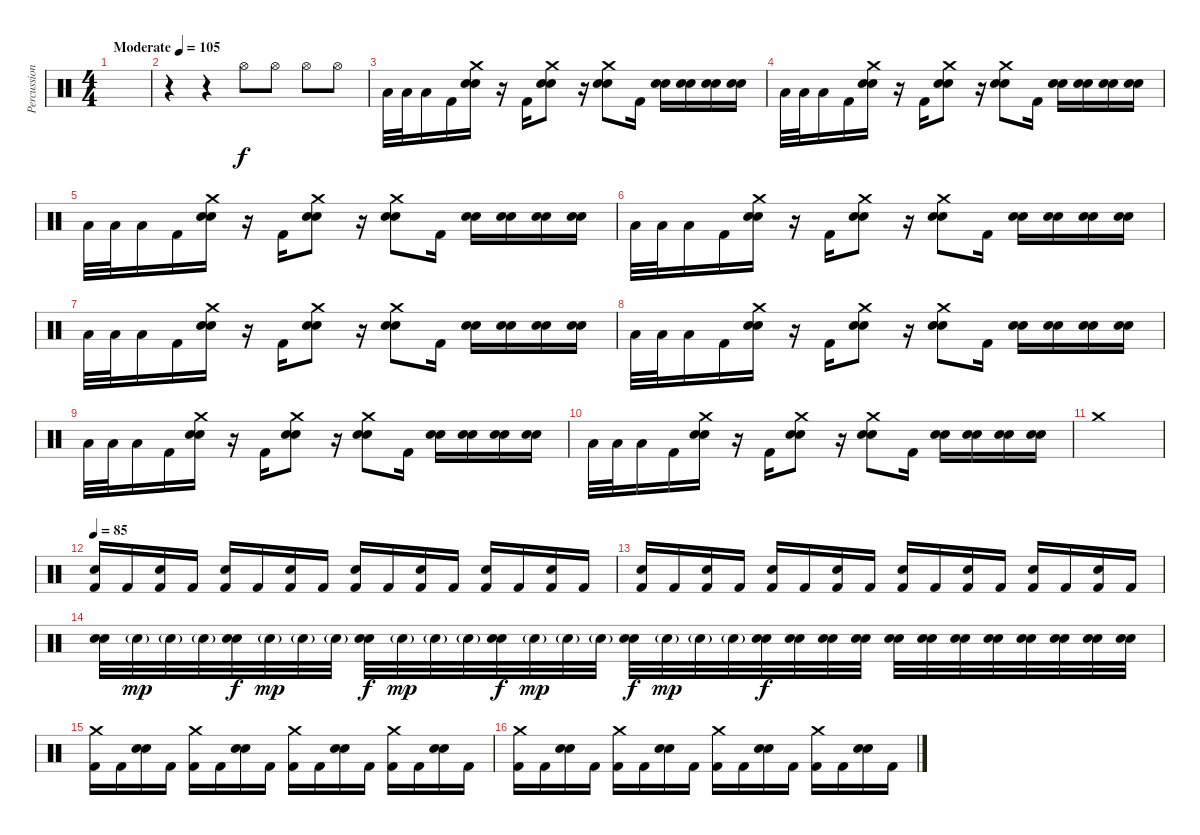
\track ("Percussion" "Percussion") {instrument percussion}
\staff {score}
\articulation defaults
\ts (4 4)
\tempo (105 "Moderate")
\clef neutral
\ks c
|
r.4 r.4 "Hi-Hat (open)".8 "Hi-Hat (open)".8 "Hi-Hat (open)".8 "Hi-Hat (open)".8 |
"Low Tom (hit)".32 "Low Tom (hit)".32 "Low Tom (hit)".16 "Kick (hit) 2".16 ("Crash medium (hit)" "Electric Snare (hit)" "Electric Snare (hit)").16 r.16 "Kick (hit) 2".16 ("Crash medium (hit)" "Electric Snare (hit)" "Electric Snare (hit)").8 r.16 ("Crash medium (hit)" "Electric Snare (hit)" "Electric Snare (hit)").8 "Kick (hit) 2".16 ("Electric Snare (hit)" "Electric Snare (hit)").16 ("Electric Snare (hit)" "Electric Snare (hit)").16 ("Electric Snare (hit)" "Electric Snare (hit)").16 ("Electric Snare (hit)" "Electric Snare (hit)").16 |
"Low Tom (hit)".32 "Low Tom (hit)".32 "Low Tom (hit)".16 "Kick (hit) 2".16 ("Crash medium (hit)" "Electric Snare (hit)" "Electric Snare (hit)").16 r.16 "Kick (hit) 2".16 ("Crash medium (hit)" "Electric Snare (hit)" "Electric Snare (hit)").8 r.16 ("Crash medium (hit)" "Electric Snare (hit)" "Electric Snare (hit)").8 "Kick (hit) 2".16 ("Electric Snare (hit)" "Electric Snare (hit)").16 ("Electric Snare (hit)" "Electric Snare (hit)").16 ("Electric Snare (hit)" "Electric Snare (hit)").16 ("Electric Snare (hit)" "Electric Snare (hit)").16 |
"Low Tom (hit)".32 "Low Tom (hit)".32 "Low Tom (hit)".16 "Kick (hit) 2".16 ("Crash medium (hit)" "Electric Snare (hit)" "Electric Snare (hit)").16 r.16 "Kick (hit) 2".16 ("Crash medium (hit)" "Electric Snare (hit)" "Electric Snare (hit)").8 r.16 ("Crash medium (hit)" "Electric Snare (hit)" "Electric Snare (hit)").8 "Kick (hit) 2".16 ("Electric Snare (hit)" "Electric Snare (hit)").16 ("Electric Snare (hit)" "Electric Snare (hit)").16 ("Electric Snare (hit)" "Electric Snare (hit)").16 ("Electric Snare (hit)" "Electric Snare (hit)").16 |
"Low Tom (hit)".32 "Low Tom (hit)".32 "Low Tom (hit)".16 "Kick (hit) 2".16 ("Crash medium (hit)" "Electric Snare (hit)" "Electric Snare (hit)").16 r.16 "Kick (hit) 2".16 ("Crash medium (hit)" "Electric Snare (hit)" "Electric Snare (hit)").8 r.16 ("Crash medium (hit)" "Electric Snare (hit)" "Electric Snare (hit)").8 "Kick (hit) 2".16 ("Electric Snare (hit)" "Electric Snare (hit)").16 ("Electric Snare (hit)" "Electric Snare (hit)").16 ("Electric Snare (hit)" "Electric Snare (hit)").16 ("Electric Snare (hit)" "Electric Snare (hit)").16 |
"Low Tom (hit)".32 "Low Tom (hit)".32 "Low Tom (hit)".16 "Kick (hit) 2".16 ("Crash medium (hit)" "Electric Snare (hit)" "Electric Snare (hit)").16 r.16 "Kick (hit) 2".16 ("Crash medium (hit)" "Electric Snare (hit)" "Electric Snare (hit)").8 r.16 ("Crash medium (hit)" "Electric Snare (hit)" "Electric Snare (hit)").8 "Kick (hit) 2".16 ("Electric Snare (hit)" "Electric Snare (hit)").16 ("Electric Snare (hit)" "Electric Snare (hit)").16 ("Electric Snare (hit)" "Electric Snare (hit)").16 ("Electric Snare (hit)" "Electric Snare (hit)").16 |
"Low Tom (hit)".32 "Low Tom (hit)".32 "Low Tom (hit)".16 "Kick (hit) 2".16 ("Crash medium (hit)" "Electric Snare (hit)" "Electric Snare (hit)").16 r.16 "Kick (hit) 2".16 ("Crash medium (hit)" "Electric Snare (hit)" "Electric Snare (hit)").8 r.16 ("Crash medium (hit)" "Electric Snare (hit)" "Electric Snare (hit)").8 "Kick (hit) 2".16 ("Electric Snare (hit)" "Electric Snare (hit)").16 ("Electric Snare (hit)" "Electric Snare (hit)").16 ("Electric Snare (hit)" "Electric Snare (hit)").16 ("Electric Snare (hit)" "Electric Snare (hit)").16 |
"Low Tom (hit)".32 "Low Tom (hit)".32 "Low Tom (hit)".16 "Kick (hit) 2".16 ("Crash medium (hit)" "Electric Snare (hit)" "Electric Snare (hit)").16 r.16 "Kick (hit) 2".16 ("Crash medium (hit)" "Electric Snare (hit)" "Electric Snare (hit)").8 r.16 ("Crash medium (hit)" "Electric Snare (hit)" "Electric Snare (hit)").8 "Kick (hit) 2".16 ("Electric Snare (hit)" "Electric Snare (hit)").16 ("Electric Snare (hit)" "Electric Snare (hit)").16 ("Electric Snare (hit)" "Electric Snare (hit)").16 ("Electric Snare (hit)" "Electric Snare (hit)").16 |
"Low Tom (hit)".32 "Low Tom (hit)".32 "Low Tom (hit)".16 "Kick (hit) 2".16 ("Crash medium (hit)" "Electric Snare (hit)" "Electric Snare (hit)").16 r.16 "Kick (hit) 2".16 ("Crash medium (hit)" "Electric Snare (hit)" "Electric Snare (hit)").8 r.16 ("Crash medium (hit)" "Electric Snare (hit)" "Electric Snare (hit)").8 "Kick (hit) 2".16 ("Electric Snare (hit)" "Electric Snare (hit)").16 ("Electric Snare (hit)" "Electric Snare (hit)").16 ("Electric Snare (hit)" "Electric Snare (hit)").16 ("Electric Snare (hit)" "Electric Snare (hit)").16 |
"Crash medium (hit)".1 |
\tempo 85
("Electric Snare (hit)" "Kick (hit) 2").16 "Kick (hit) 2".16 ("Electric Snare (hit)" "Kick (hit) 2").16 "Kick (hit) 2".16 ("Electric Snare (hit)" "Kick (hit) 2").16 "Kick (hit) 2".16 ("Electric Snare (hit)" "Kick (hit) 2").16 "Kick (hit) 2".16 ("Electric Snare (hit)" "Kick (hit) 2").16 "Kick (hit) 2".16 ("Electric Snare (hit)" "Kick (hit) 2").16 "Kick (hit) 2".16 ("Electric Snare (hit)" "Kick (hit) 2").16 "Kick (hit) 2".16 ("Electric Snare (hit)" "Kick (hit) 2").16 "Kick (hit) 2".16 |
("Electric Snare (hit)" "Kick (hit) 2").16 "Kick (hit) 2".16 ("Electric Snare (hit)" "Kick (hit) 2").16 "Kick (hit) 2".16 ("Electric Snare (hit)" "Kick (hit) 2").16 "Kick (hit) 2".16 ("Electric Snare (hit)" "Kick (hit) 2").16 "Kick (hit) 2".16 ("Electric Snare (hit)" "Kick (hit) 2").16 "Kick (hit) 2".16 ("Electric Snare (hit)" "Kick (hit) 2").16 "Kick (hit) 2".16 ("Electric Snare (hit)" "Kick (hit) 2").16 "Kick (hit) 2".16 ("Electric Snare (hit)" "Kick (hit) 2").16 "Kick (hit) 2".16 |
("Electric Snare (hit)" "Electric Snare (hit)").32 "Electric Snare (hit)"{g}.32{dy mp} "Electric Snare (hit)"{g}.32 "Electric Snare (hit)"{g}.32 ("Electric Snare (hit)" "Electric Snare (hit)").32{dy f} "Electric Snare (hit)"{g}.32{dy mp} "Electric Snare (hit)"{g}.32 "Electric Snare (hit)"{g}.32 ("Electric Snare (hit)" "Electric Snare (hit)").32{dy f} "Electric Snare (hit)"{g}.32{dy mp} "Electric Snare (hit)"{g}.32 "Electric Snare (hit)"{g}.32 ("Electric Snare (hit)" "Electric Snare (hit)").32{dy f} "Electric Snare (hit)"{g}.32{dy mp} "Electric Snare (hit)"{g}.32 "Electric Snare (hit)"{g}.32 ("Electric Snare (hit)" "Electric Snare (hit)").32{dy f} "Electric Snare (hit)"{g}.32{dy mp} "Electric Snare (hit)"{g}.32 "Electric Snare (hit)"{g}.32 ("Electric Snare (hit)" "Electric Snare (hit)").32{dy f} ("Electric Snare (hit)" "Electric Snare (hit)").32 ("Electric Snare (hit)" "Electric Snare (hit)").32 ("Electric Snare (hit)" "Electric Snare (hit)").32 ("Electric Snare (hit)" "Electric Snare (hit)").32 ("Electric Snare (hit)" "Electric Snare (hit)").32 ("Electric Snare (hit)" "Electric Snare (hit)").32 ("Electric Snare (hit)" "Electric Snare (hit)").32 ("Electric Snare (hit)" "Electric Snare (hit)").32 ("Electric Snare (hit)" "Electric Snare (hit)").32 ("Electric Snare (hit)" "Electric Snare (hit)").32 ("Electric Snare (hit)" "Electric Snare (hit)").32 |
("Crash medium (hit)" "Kick (hit) 2").16 "Kick (hit) 2".16 ("Electric Snare (hit)" "Electric Snare (hit)").16 "Kick (hit) 2".16 ("Crash medium (hit)" "Kick (hit) 2").16 "Kick (hit) 2".16 ("Electric Snare (hit)" "Electric Snare (hit)").16 "Kick (hit) 2".16 ("Crash medium (hit)" "Kick (hit) 2").16 "Kick (hit) 2".16 ("Electric Snare (hit)" "Electric Snare (hit)").16 "Kick (hit) 2".16 ("Crash medium (hit)" "Kick (hit) 2").16 "Kick (hit) 2".16 ("Electric Snare (hit)" "Electric Snare (hit)").16 "Kick (hit) 2".16 |
("Crash medium (hit)" "Kick (hit) 2").16 "Kick (hit) 2".16 ("Electric Snare (hit)" "Electric Snare (hit)").16 "Kick (hit) 2".16 ("Crash medium (hit)" "Kick (hit) 2").16 "Kick (hit) 2".16 ("Electric Snare (hit)" "Electric Snare (hit)").16 "Kick (hit) 2".16 ("Crash medium (hit)" "Kick (hit) 2").16 "Kick (hit) 2".16 ("Electric Snare (hit)" "Electric Snare (hit)").16 "Kick (hit) 2".16 ("Crash medium (hit)" "Kick (hit) 2").16 "Kick (hit) 2".16 ("Electric Snare (hit)" "Electric Snare (hit)").16 "Kick (hit) 2".16
